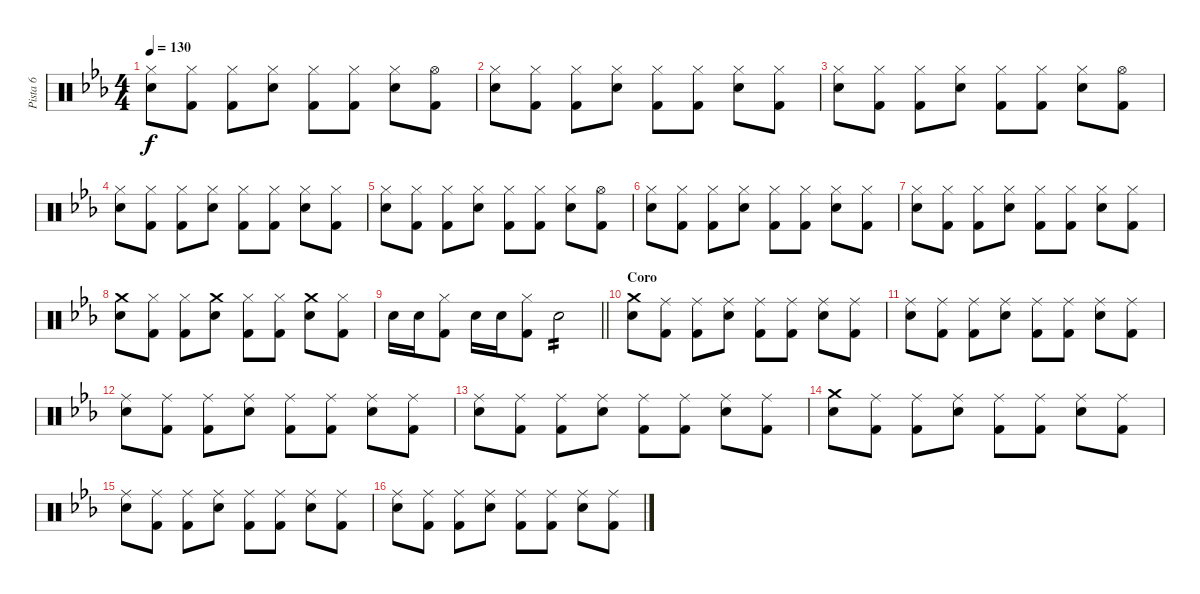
\track ("Pista 6" "Pista 6") {instrument percussion}
\staff {score}
\articulation defaults
\ts (4 4)
\tempo 130
\clef neutral
\ks eb
("Hi-Hat (closed)" "Snare (hit) 2").8{dy f} ("Hi-Hat (closed)" "Kick (hit) 2").8 ("Hi-Hat (closed)" "Kick (hit) 2").8 ("Hi-Hat (closed)" "Snare (hit) 2").8 ("Hi-Hat (closed)" "Kick (hit) 2").8 ("Hi-Hat (closed)" "Kick (hit) 2").8 ("Hi-Hat (closed)" "Snare (hit) 2").8 ("Hi-Hat (open)" "Kick (hit) 2").8 |
("Hi-Hat (closed)" "Snare (hit) 2").8 ("Hi-Hat (closed)" "Kick (hit) 2").8 ("Hi-Hat (closed)" "Kick (hit) 2").8 ("Hi-Hat (closed)" "Snare (hit) 2").8 ("Hi-Hat (closed)" "Kick (hit) 2").8 ("Hi-Hat (closed)" "Kick (hit) 2").8 ("Hi-Hat (closed)" "Snare (hit) 2").8 ("Hi-Hat (closed)" "Kick (hit) 2").8 |
("Hi-Hat (closed)" "Snare (hit) 2").8 ("Hi-Hat (closed)" "Kick (hit) 2").8 ("Hi-Hat (closed)" "Kick (hit) 2").8 ("Hi-Hat (closed)" "Snare (hit) 2").8 ("Hi-Hat (closed)" "Kick (hit) 2").8 ("Hi-Hat (closed)" "Kick (hit) 2").8 ("Hi-Hat (closed)" "Snare (hit) 2").8 ("Hi-Hat (open)" "Kick (hit) 2").8 |
("Hi-Hat (closed)" "Snare (hit) 2").8 ("Hi-Hat (closed)" "Kick (hit) 2").8 ("Hi-Hat (closed)" "Kick (hit) 2").8 ("Hi-Hat (closed)" "Snare (hit) 2").8 ("Hi-Hat (closed)" "Kick (hit) 2").8 ("Hi-Hat (closed)" "Kick (hit) 2").8 ("Hi-Hat (closed)" "Snare (hit) 2").8 ("Hi-Hat (closed)" "Kick (hit) 2").8 |
("Hi-Hat (closed)" "Snare (hit) 2").8 ("Hi-Hat (closed)" "Kick (hit) 2").8 ("Hi-Hat (closed)" "Kick (hit) 2").8 ("Hi-Hat (closed)" "Snare (hit) 2").8 ("Hi-Hat (closed)" "Kick (hit) 2").8 ("Hi-Hat (closed)" "Kick (hit) 2").8 ("Hi-Hat (closed)" "Snare (hit) 2").8 ("Hi-Hat (open)" "Kick (hit) 2").8 |
("Hi-Hat (closed)" "Snare (hit) 2").8 ("Hi-Hat (closed)" "Kick (hit) 2").8 ("Hi-Hat (closed)" "Kick (hit) 2").8 ("Hi-Hat (closed)" "Snare (hit) 2").8 ("Hi-Hat (closed)" "Kick (hit) 2").8 ("Hi-Hat (closed)" "Kick (hit) 2").8 ("Hi-Hat (closed)" "Snare (hit) 2").8 ("Hi-Hat (closed)" "Kick (hit) 2").8 |
("Hi-Hat (closed)" "Snare (hit) 2").8 ("Hi-Hat (closed)" "Kick (hit) 2").8 ("Hi-Hat (closed)" "Kick (hit) 2").8 ("Hi-Hat (closed)" "Snare (hit) 2").8 ("Hi-Hat (closed)" "Kick (hit) 2").8 ("Hi-Hat (closed)" "Kick (hit) 2").8 ("Hi-Hat (closed)" "Snare (hit) 2").8 ("Hi-Hat (closed)" "Kick (hit) 2").8 |
("Crash medium (hit)" "Snare (hit) 2").8 ("Hi-Hat (closed)" "Kick (hit) 2").8 ("Hi-Hat (closed)" "Kick (hit) 2").8 ("Crash medium (hit)" "Snare (hit) 2").8 ("Hi-Hat (closed)" "Kick (hit) 2").8 ("Hi-Hat (closed)" "Kick (hit) 2").8 ("Crash medium (hit)" "Snare (hit) 2").8 ("Hi-Hat (closed)" "Kick (hit) 2").8 |
\barLineRight lightlight "Snare (hit) 2".16 "Snare (hit) 2".16
("Hi-Hat (closed)" "Kick (hit) 2").8 "Snare (hit) 2".16 "Snare (hit) 2".16 ("Hi-Hat (closed)" "Kick (hit) 2").8 "Snare (hit) 2".2{tp 2} |
\section ("" "Coro")
("Crash medium (hit)" "Snare (hit) 2").8 ("Ride (middle)" "Kick (hit) 2").8 ("Ride (middle)" "Kick (hit) 2").8 ("Ride (middle)" "Snare (hit) 2").8 ("Ride (middle)" "Kick (hit) 2").8 ("Ride (middle)" "Kick (hit) 2").8 ("Ride (middle)" "Snare (hit) 2").8 ("Ride (middle)" "Kick (hit) 2").8 |
("Ride (middle)" "Snare (hit) 2").8 ("Ride (middle)" "Kick (hit) 2").8 ("Ride (middle)" "Kick (hit) 2").8 ("Ride (middle)" "Snare (hit) 2").8 ("Ride (middle)" "Kick (hit) 2").8 ("Ride (middle)" "Kick (hit) 2").8 ("Ride (middle)" "Snare (hit) 2").8 ("Ride (middle)" "Kick (hit) 2").8 |
("Ride (middle)" "Snare (hit) 2").8 ("Ride (middle)" "Kick (hit) 2").8 ("Ride (middle)" "Kick (hit) 2").8 ("Ride (middle)" "Snare (hit) 2").8 ("Ride (middle)" "Kick (hit) 2").8 ("Ride (middle)" "Kick (hit) 2").8 ("Ride (middle)" "Snare (hit) 2").8 ("Ride (middle)" "Kick (hit) 2").8 |
("Ride (middle)" "Snare (hit) 2").8 ("Ride (middle)" "Kick (hit) 2").8 ("Ride (middle)" "Kick (hit) 2").8 ("Ride (middle)" "Snare (hit) 2").8 ("Ride (middle)" "Kick (hit) 2").8 ("Ride (middle)" "Kick (hit) 2").8 ("Ride (middle)" "Snare (hit) 2").8 ("Ride (middle)" "Kick (hit) 2").8 |
("Crash medium (hit)" "Snare (hit) 2").8 ("Ride (middle)" "Kick (hit) 2").8 ("Ride (middle)" "Kick (hit) 2").8 ("Ride (middle)" "Snare (hit) 2").8 ("Ride (middle)" "Kick (hit) 2").8 ("Ride (middle)" "Kick (hit) 2").8 ("Ride (middle)" "Snare (hit) 2").8 ("Ride (middle)" "Kick (hit) 2").8 |
("Ride (middle)" "Snare (hit) 2").8 ("Ride (middle)" "Kick (hit) 2").8 ("Ride (middle)" "Kick (hit) 2").8 ("Ride (middle)" "Snare (hit) 2").8 ("Ride (middle)" "Kick (hit) 2").8 ("Ride (middle)" "Kick (hit) 2").8 ("Ride (middle)" "Snare (hit) 2").8 ("Ride (middle)" "Kick (hit) 2").8 |
("Ride (middle)" "Snare (hit) 2").8 ("Ride (middle)" "Kick (hit) 2").8 ("Ride (middle)" "Kick (hit) 2").8 ("Ride (middle)" "Snare (hit) 2").8 ("Ride (middle)" "Kick (hit) 2").8 ("Ride (middle)" "Kick (hit) 2").8 ("Ride (middle)" "Snare (hit) 2").8 ("Ride (middle)" "Kick (hit) 2").8
